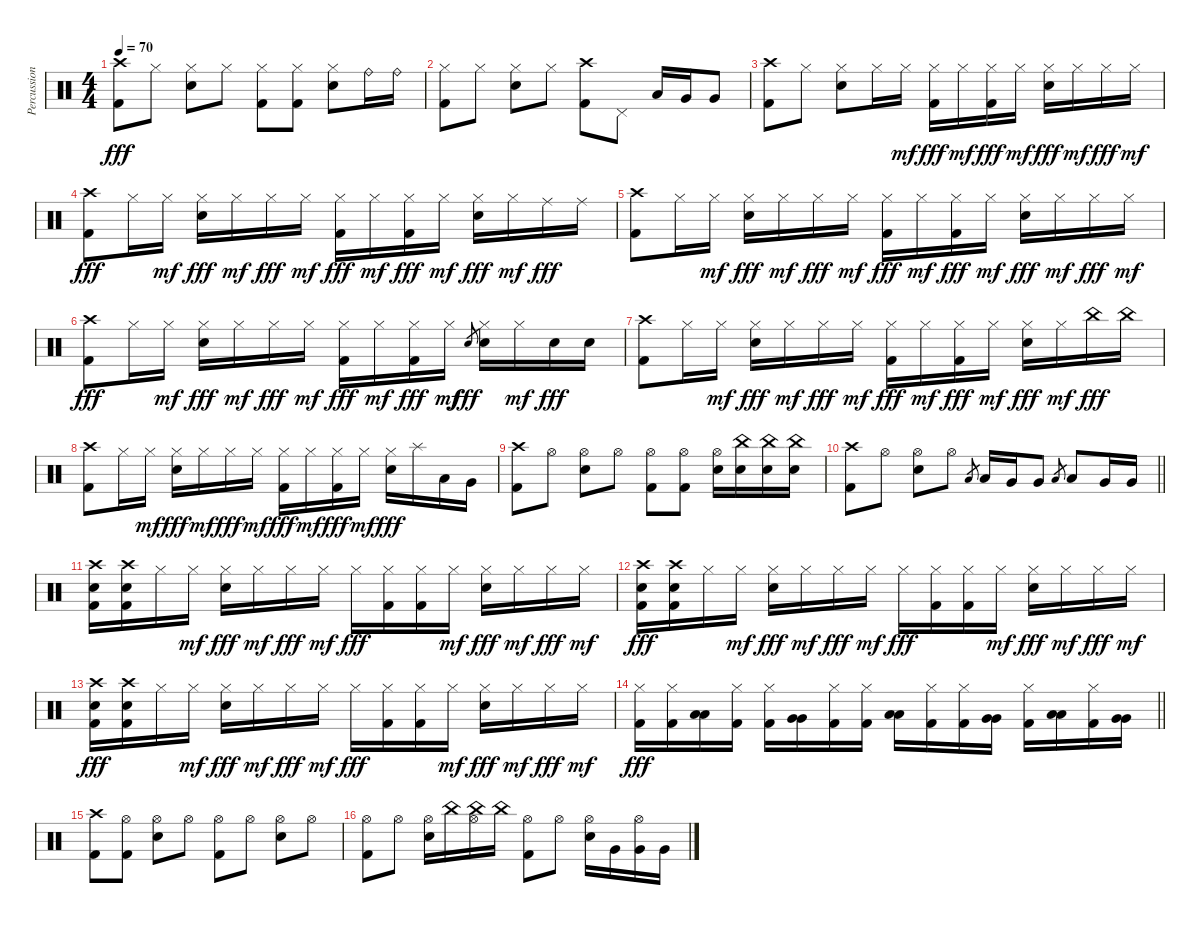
\track ("Percussion" "Percussion") {instrument percussion}
\staff {score}
\articulation defaults
\ts (4 4)
\tempo 70
\clef neutral
\ks c
("Crash high (hit)" "Kick (hit) 2").8{dy fff} "Hi-Hat (closed)".8 ("Hi-Hat (closed)" "Snare (hit) 2").8 "Hi-Hat (closed)".8 ("Hi-Hat (closed)" "Kick (hit) 2").8 ("Hi-Hat (closed)" "Kick (hit) 2").8 ("Hi-Hat (closed)" "Snare (hit) 2").8 "Ride (bell)".16 "Ride (bell)".16 |
("Hi-Hat (closed)" "Kick (hit) 2").8 "Hi-Hat (closed)".8 ("Hi-Hat (closed)" "Snare (hit) 2").8 "Hi-Hat (closed)".8 ("Crash high (hit)" "Kick (hit) 2").8 "Pedal Hi-Hat (hit)".8 "Low Tom (hit)".16 "Very Low Tom (hit)".16 "Very Low Tom (hit)".8 |
("Crash high (hit)" "Kick (hit) 2").8 "Hi-Hat (closed)".8 ("Hi-Hat (closed)" "Snare (hit) 2").8 "Hi-Hat (closed)".16 "Hi-Hat (closed)".16{dy mf} ("Hi-Hat (closed)" "Kick (hit) 2").16{dy fff} "Hi-Hat (closed)".16{dy mf} ("Hi-Hat (closed)" "Kick (hit) 2").16{dy fff} "Hi-Hat (closed)".16{dy mf} ("Hi-Hat (closed)" "Snare (hit) 2").16{dy fff} "Hi-Hat (closed)".16{dy mf} "Hi-Hat (closed)".16{dy fff} "Hi-Hat (closed)".16{dy mf} |
("Crash high (hit)" "Kick (hit) 2").8{dy fff} "Hi-Hat (closed)".16 "Hi-Hat (closed)".16{dy mf} ("Hi-Hat (closed)" "Snare (hit) 2").16{dy fff} "Hi-Hat (closed)".16{dy mf} "Hi-Hat (closed)".16{dy fff} "Hi-Hat (closed)".16{dy mf} ("Hi-Hat (closed)" "Kick (hit) 2").16{dy fff} "Hi-Hat (closed)".16{dy mf} ("Hi-Hat (closed)" "Kick (hit) 2").16{dy fff} "Hi-Hat (closed)".16{dy mf} ("Hi-Hat (closed)" "Snare (hit) 2").16{dy fff} "Hi-Hat (closed)".16{dy mf} "Ride (middle)".16{dy fff} "Ride (middle)".16 |
("Crash high (hit)" "Kick (hit) 2").8 "Hi-Hat (closed)".16 "Hi-Hat (closed)".16{dy mf} ("Hi-Hat (closed)" "Snare (hit) 2").16{dy fff} "Hi-Hat (closed)".16{dy mf} "Hi-Hat (closed)".16{dy fff} "Hi-Hat (closed)".16{dy mf} ("Hi-Hat (closed)" "Kick (hit) 2").16{dy fff} "Hi-Hat (closed)".16{dy mf} ("Hi-Hat (closed)" "Kick (hit) 2").16{dy fff} "Hi-Hat (closed)".16{dy mf} ("Hi-Hat (closed)" "Snare (hit) 2").16{dy fff} "Hi-Hat (closed)".16{dy mf} "Hi-Hat (closed)".16{dy fff} "Hi-Hat (closed)".16{dy mf} |
("Crash high (hit)" "Kick (hit) 2").8{dy fff} "Hi-Hat (closed)".16 "Hi-Hat (closed)".16{dy mf} ("Hi-Hat (closed)" "Snare (hit) 2").16{dy fff} "Hi-Hat (closed)".16{dy mf} "Hi-Hat (closed)".16{dy fff} "Hi-Hat (closed)".16{dy mf} ("Hi-Hat (closed)" "Kick (hit) 2").16{dy fff} "Hi-Hat (closed)".16{dy mf} ("Hi-Hat (closed)" "Kick (hit) 2").16{dy fff} "Hi-Hat (closed)".16{dy mf} "Snare (hit) 2".8{gr dy fff} ("Hi-Hat (closed)" "Snare (hit) 2").16 "Hi-Hat (closed)".16{dy mf} "Snare (hit) 2".16{dy fff} "Snare (hit) 2".16 |
("Crash high (hit)" "Kick (hit) 2").8 "Hi-Hat (closed)".16 "Hi-Hat (closed)".16{dy mf} ("Hi-Hat (closed)" "Snare (hit) 2").16{dy fff} "Hi-Hat (closed)".16{dy mf} "Hi-Hat (closed)".16{dy fff} "Hi-Hat (closed)".16{dy mf} ("Hi-Hat (closed)" "Kick (hit) 2").16{dy fff} "Hi-Hat (closed)".16{dy mf} ("Hi-Hat (closed)" "Kick (hit) 2").16{dy fff} "Hi-Hat (closed)".16{dy mf} ("Hi-Hat (closed)" "Snare (hit) 2").16{dy fff} "Hi-Hat (closed)".16{dy mf} "China (hit)".16{dy fff} "China (hit)".16 |
("Crash high (hit)" "Kick (hit) 2").8 "Hi-Hat (closed)".16 "Hi-Hat (closed)".16{dy mf} ("Hi-Hat (closed)" "Snare (hit) 2").16{dy fff} "Hi-Hat (closed)".16{dy mf} "Hi-Hat (closed)".16{dy fff} "Hi-Hat (closed)".16{dy mf} ("Hi-Hat (closed)" "Kick (hit) 2").16{dy fff} "Hi-Hat (closed)".16{dy mf} ("Hi-Hat (closed)" "Kick (hit) 2").16{dy fff} "Hi-Hat (closed)".16{dy mf} ("Hi-Hat (closed)" "Snare (hit) 2").16{dy fff} "Splash (hit)".16 "Low Tom (hit)".16 "Very Low Tom (hit)".16 |
("Crash high (hit)" "Kick (hit) 2").8 "Hi-Hat (open)".8 ("Hi-Hat (open)" "Snare (hit) 2").8 "Hi-Hat (open)".8 ("Hi-Hat (open)" "Kick (hit) 2").8 ("Hi-Hat (open)" "Kick (hit) 2").8 ("Hi-Hat (open)" "Snare (hit) 2").16 ("China (hit)" "Snare (hit) 2").16 ("China (hit)" "Snare (hit) 2").16 ("China (hit)" "Snare (hit) 2").16 |
\barLineRight lightlight
("Crash high (hit)" "Kick (hit) 2").8 "Hi-Hat (open)".8 ("Hi-Hat (open)" "Snare (hit) 2").8 "Hi-Hat (open)".8 "Low Tom (hit)".8{gr} "Low Tom (hit)".16 "Very Low Tom (hit)".16 "Very Low Tom (hit)".8 "Low Tom (hit)".8{gr} "Low Tom (hit)".8 "Very Low Tom (hit)".16 "Very Low Tom (hit)".16 |
("Crash high (hit)" "Snare (hit) 2" "Kick (hit) 2").16 ("Crash high (hit)" "Snare (hit) 2" "Kick (hit) 2").16 "Hi-Hat (closed)".16 "Hi-Hat (closed)".16{dy mf} ("Hi-Hat (closed)" "Snare (hit) 2").16{dy fff} "Hi-Hat (closed)".16{dy mf} "Hi-Hat (closed)".16{dy fff} "Hi-Hat (closed)".16{dy mf} "Hi-Hat (closed)".16{dy fff} ("Hi-Hat (closed)" "Kick (hit) 2").16 ("Hi-Hat (closed)" "Kick (hit) 2").16 "Hi-Hat (closed)".16{dy mf} ("Hi-Hat (closed)" "Snare (hit) 2").16{dy fff} "Hi-Hat (closed)".16{dy mf} "Hi-Hat (closed)".16{dy fff} "Hi-Hat (closed)".16{dy mf} |
("Crash high (hit)" "Snare (hit) 2" "Kick (hit) 2").16{dy fff} ("Crash high (hit)" "Snare (hit) 2" "Kick (hit) 2").16 "Hi-Hat (closed)".16 "Hi-Hat (closed)".16{dy mf} ("Hi-Hat (closed)" "Snare (hit) 2").16{dy fff} "Hi-Hat (closed)".16{dy mf} "Hi-Hat (closed)".16{dy fff} "Hi-Hat (closed)".16{dy mf} "Hi-Hat (closed)".16{dy fff} ("Hi-Hat (closed)" "Kick (hit) 2").16 ("Hi-Hat (closed)" "Kick (hit) 2").16 "Hi-Hat (closed)".16{dy mf} ("Hi-Hat (closed)" "Snare (hit) 2").16{dy fff} "Hi-Hat (closed)".16{dy mf} "Hi-Hat (closed)".16{dy fff} "Hi-Hat (closed)".16{dy mf} |
("Crash high (hit)" "Snare (hit) 2" "Kick (hit) 2").16{dy fff} ("Crash high (hit)" "Snare (hit) 2" "Kick (hit) 2").16 "Hi-Hat (closed)".16 "Hi-Hat (closed)".16{dy mf} ("Hi-Hat (closed)" "Snare (hit) 2").16{dy fff} "Hi-Hat (closed)".16{dy mf} "Hi-Hat (closed)".16{dy fff} "Hi-Hat (closed)".16{dy mf} "Hi-Hat (closed)".16{dy fff} ("Hi-Hat (closed)" "Kick (hit) 2").16 ("Hi-Hat (closed)" "Kick (hit) 2").16 "Hi-Hat (closed)".16{dy mf} ("Hi-Hat (closed)" "Snare (hit) 2").16{dy fff} "Hi-Hat (closed)".16{dy mf} "Hi-Hat (closed)".16{dy fff} "Hi-Hat (closed)".16{dy mf} |
\barLineRight lightlight
("Hi-Hat (closed)" "Kick (hit) 2").16{dy fff} ("Hi-Hat (closed)" "Kick (hit) 2").16 ("Low Tom (hit)" "Low Tom (hit)").16 ("Hi-Hat (closed)" "Kick (hit) 2").16 ("Hi-Hat (closed)" "Kick (hit) 2").16 ("Very Low Tom (hit)" "Very Low Tom (hit)").16 ("Hi-Hat (closed)" "Kick (hit) 2").16 ("Hi-Hat (closed)" "Kick (hit) 2").16 ("Low Tom (hit)" "Low Tom (hit)").16 ("Hi-Hat (closed)" "Kick (hit) 2").16 ("Hi-Hat (closed)" "Kick (hit) 2").16 ("Very Low Tom (hit)" "Very Low Tom (hit)").16 ("Hi-Hat (closed)" "Kick (hit) 2").16 ("Low Tom (hit)" "Low Tom (hit)").16 ("Hi-Hat (closed)" "Kick (hit) 2").16 ("Very Low Tom (hit)" "Very Low Tom (hit)").16 |
("Crash high (hit)" "Kick (hit) 2").8 ("Hi-Hat (open)" "Kick (hit) 2").8 ("Hi-Hat (open)" "Snare (hit) 2").8 "Hi-Hat (open)".8 ("Hi-Hat (open)" "Kick (hit) 2").8 "Hi-Hat (open)".8 ("Hi-Hat (open)" "Snare (hit) 2").8 "Hi-Hat (open)".8 |
("Hi-Hat (open)" "Kick (hit) 2").8 "Hi-Hat (open)".8 ("Hi-Hat (open)" "Snare (hit) 2").16 "China (hit)".16 ("Hi-Hat (open)" "China (hit)").16 "China (hit)".16 ("Hi-Hat (open)" "Kick (hit) 2").8 "Hi-Hat (open)".8 ("Hi-Hat (open)" "Snare (hit) 2").16 "Very Low Tom (hit)".16 ("Hi-Hat (open)" "Very Low Tom (hit)").16 "Very Low Tom (hit)".16
